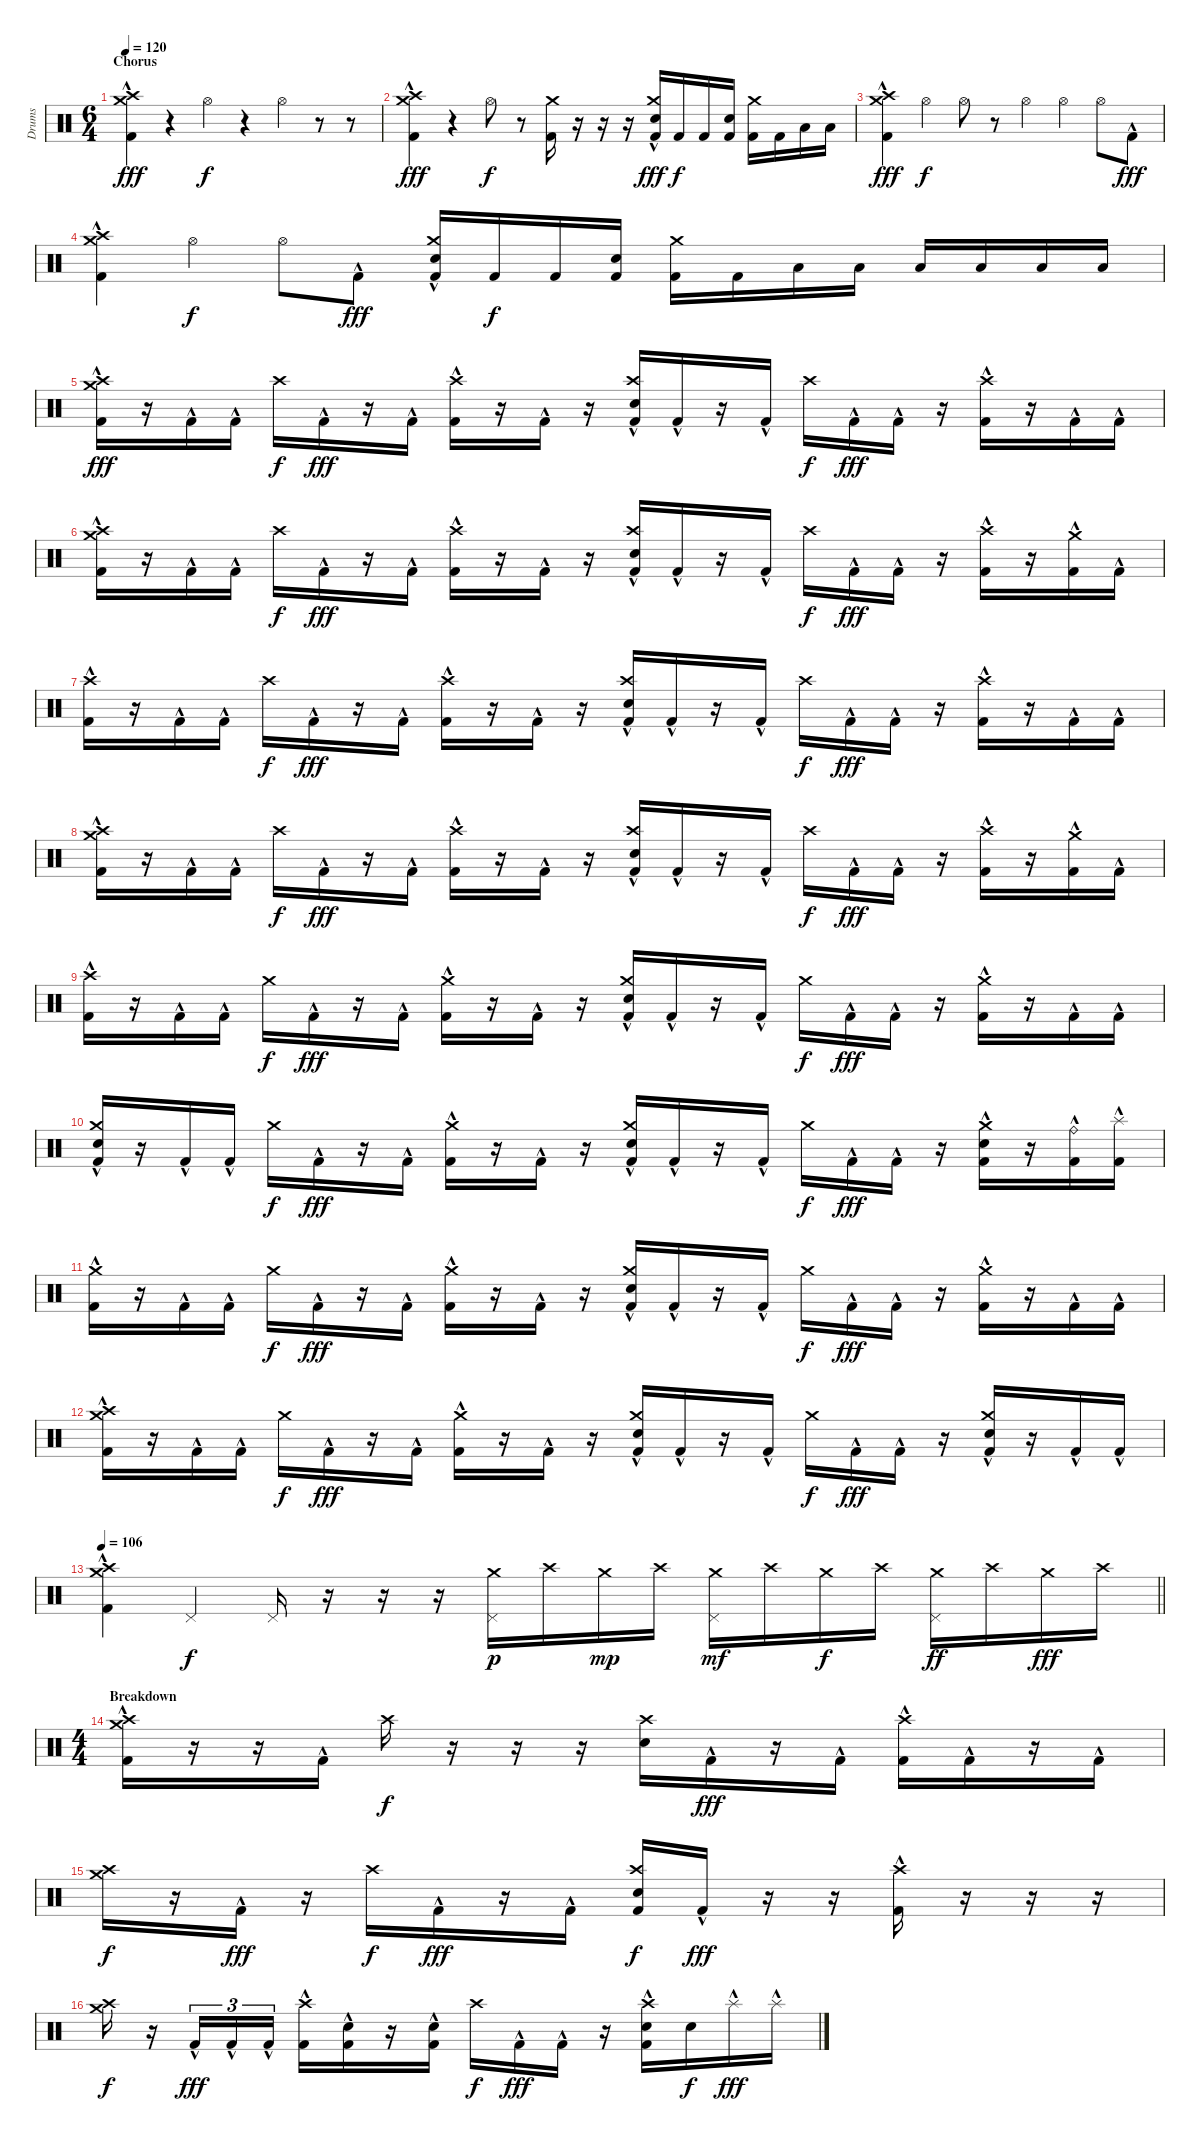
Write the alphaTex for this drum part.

\track ("Drums" "Drums") {instrument percussion}
\staff {score}
\articulation defaults
\ts (6 4)
\section ("" "Chorus")
\tempo 120
\clef neutral
\ks c
("Kick (hit) 2"{hac} "Crash high (hit)" "Crash medium (hit)").4{dy fff} r.4 "Hi-Hat (open)".4{dy f} r.4 "Hi-Hat (open)".4 r.8 r.8 |
("Kick (hit) 2"{hac} "Crash high (hit)" "Crash medium (hit)").4{dy fff} r.4 "Hi-Hat (open)".8{dy f} r.8 ("Kick (hit) 2" "Crash medium (hit)").16 r.16 r.16 r.16 ("Kick (hit) 2"{hac} "Electric Snare (hit)" "Crash medium (hit)").16{dy fff} "Kick (hit) 2".16{dy f} "Kick (hit) 2".16 ("Kick (hit) 2" "Electric Snare (hit)").16 ("Kick (hit) 2" "Crash medium (hit)").16 "Kick (hit) 2".16 "Low Tom (hit)".16 "Low Tom (hit)".16 |
("Kick (hit) 2"{hac} "Crash high (hit)" "Crash medium (hit)").4{dy fff} "Hi-Hat (open)".4{dy f} "Hi-Hat (open)".8 r.8 "Hi-Hat (open)".4 "Hi-Hat (open)".4 "Hi-Hat (open)".8 "Kick (hit) 2"{hac}.8{dy fff} |
("Kick (hit) 2"{hac} "Crash high (hit)" "Crash medium (hit)").4 "Hi-Hat (open)".4{dy f} "Hi-Hat (open)".8 "Kick (hit) 2"{hac}.8{dy fff} ("Kick (hit) 2"{hac} "Electric Snare (hit)" "Crash medium (hit)").16 "Kick (hit) 2".16{dy f} "Kick (hit) 2".16 ("Kick (hit) 2" "Electric Snare (hit)").16 ("Kick (hit) 2" "Crash medium (hit)").16 "Kick (hit) 2".16 "Low Tom (hit)".16 "Low Tom (hit)".16 "Low Floor Tom (hit)".16 "Low Floor Tom (hit)".16 "Low Floor Tom (hit)".16 "Low Floor Tom (hit)".16 |
("Kick (hit) 2"{hac} "Crash medium (hit)" "Crash high (hit)").16{dy fff} r.16 "Kick (hit) 2"{hac}.16 "Kick (hit) 2"{hac}.16 "Crash high (hit)".16{dy f} "Kick (hit) 2"{hac}.16{dy fff} r.16 "Kick (hit) 2"{hac}.16 ("Kick (hit) 2"{hac} "Crash high (hit)").16 r.16 "Kick (hit) 2"{hac}.16 r.16 ("Kick (hit) 2"{hac} "Electric Snare (hit)" "Crash high (hit)").16 "Kick (hit) 2"{hac}.16 r.16 "Kick (hit) 2"{hac}.16 "Crash high (hit)".16{dy f} "Kick (hit) 2"{hac}.16{dy fff} "Kick (hit) 2"{hac}.16 r.16 ("Kick (hit) 2"{hac} "Crash high (hit)").16 r.16 "Kick (hit) 2"{hac}.16 "Kick (hit) 2"{hac}.16 |
("Kick (hit) 2"{hac} "Crash medium (hit)" "Crash high (hit)").16 r.16 "Kick (hit) 2"{hac}.16 "Kick (hit) 2"{hac}.16 "Crash high (hit)".16{dy f} "Kick (hit) 2"{hac}.16{dy fff} r.16 "Kick (hit) 2"{hac}.16 ("Kick (hit) 2"{hac} "Crash high (hit)").16 r.16 "Kick (hit) 2"{hac}.16 r.16 ("Kick (hit) 2"{hac} "Electric Snare (hit)" "Crash high (hit)").16 "Kick (hit) 2"{hac}.16 r.16 "Kick (hit) 2"{hac}.16 "Crash high (hit)".16{dy f} "Kick (hit) 2"{hac}.16{dy fff} "Kick (hit) 2"{hac}.16 r.16 ("Kick (hit) 2"{hac} "Crash high (hit)").16 r.16 ("Kick (hit) 2"{hac} "Crash medium (hit)").16 "Kick (hit) 2"{hac}.16 |
("Kick (hit) 2"{hac} "Crash high (hit)").16 r.16 "Kick (hit) 2"{hac}.16 "Kick (hit) 2"{hac}.16 "Crash high (hit)".16{dy f} "Kick (hit) 2"{hac}.16{dy fff} r.16 "Kick (hit) 2"{hac}.16 ("Kick (hit) 2"{hac} "Crash high (hit)").16 r.16 "Kick (hit) 2"{hac}.16 r.16 ("Kick (hit) 2"{hac} "Electric Snare (hit)" "Crash high (hit)").16 "Kick (hit) 2"{hac}.16 r.16 "Kick (hit) 2"{hac}.16 "Crash high (hit)".16{dy f} "Kick (hit) 2"{hac}.16{dy fff} "Kick (hit) 2"{hac}.16 r.16 ("Kick (hit) 2"{hac} "Crash high (hit)").16 r.16 "Kick (hit) 2"{hac}.16 "Kick (hit) 2"{hac}.16 |
("Kick (hit) 2"{hac} "Crash medium (hit)" "Crash high (hit)").16 r.16 "Kick (hit) 2"{hac}.16 "Kick (hit) 2"{hac}.16 "Crash high (hit)".16{dy f} "Kick (hit) 2"{hac}.16{dy fff} r.16 "Kick (hit) 2"{hac}.16 ("Kick (hit) 2"{hac} "Crash high (hit)").16 r.16 "Kick (hit) 2"{hac}.16 r.16 ("Kick (hit) 2"{hac} "Electric Snare (hit)" "Crash high (hit)").16 "Kick (hit) 2"{hac}.16 r.16 "Kick (hit) 2"{hac}.16 "Crash high (hit)".16{dy f} "Kick (hit) 2"{hac}.16{dy fff} "Kick (hit) 2"{hac}.16 r.16 ("Kick (hit) 2"{hac} "Crash high (hit)").16 r.16 ("Kick (hit) 2"{hac} "Crash medium (hit)").16 "Kick (hit) 2"{hac}.16 |
("Kick (hit) 2"{hac} "Crash high (hit)").16 r.16 "Kick (hit) 2"{hac}.16 "Kick (hit) 2"{hac}.16 "Crash medium (hit)".16{dy f} "Kick (hit) 2"{hac}.16{dy fff} r.16 "Kick (hit) 2"{hac}.16 ("Kick (hit) 2"{hac} "Crash medium (hit)").16 r.16 "Kick (hit) 2"{hac}.16 r.16 ("Kick (hit) 2"{hac} "Electric Snare (hit)" "Crash medium (hit)").16 "Kick (hit) 2"{hac}.16 r.16 "Kick (hit) 2"{hac}.16 "Crash medium (hit)".16{dy f} "Kick (hit) 2"{hac}.16{dy fff} "Kick (hit) 2"{hac}.16 r.16 ("Kick (hit) 2"{hac} "Crash medium (hit)").16 r.16 "Kick (hit) 2"{hac}.16 "Kick (hit) 2"{hac}.16 |
("Kick (hit) 2"{hac} "Snare (hit)" "Crash medium (hit)").16 r.16 "Kick (hit) 2"{hac}.16 "Kick (hit) 2"{hac}.16 "Crash medium (hit)".16{dy f} "Kick (hit) 2"{hac}.16{dy fff} r.16 "Kick (hit) 2"{hac}.16 ("Kick (hit) 2"{hac} "Crash medium (hit)").16 r.16 "Kick (hit) 2"{hac}.16 r.16 ("Kick (hit) 2"{hac} "Electric Snare (hit)" "Crash medium (hit)").16 "Kick (hit) 2"{hac}.16 r.16 "Kick (hit) 2"{hac}.16 "Crash medium (hit)".16{dy f} "Kick (hit) 2"{hac}.16{dy fff} "Kick (hit) 2"{hac}.16 r.16 ("Kick (hit) 2"{hac} "Electric Snare (hit)" "Crash medium (hit)").16 r.16 ("Kick (hit) 2"{hac} "Ride (bell)").16 ("Kick (hit) 2"{hac} "Splash (hit)"{hac}).16 |
("Kick (hit) 2"{hac} "Crash medium (hit)").16 r.16 "Kick (hit) 2"{hac}.16 "Kick (hit) 2"{hac}.16 "Crash medium (hit)".16{dy f} "Kick (hit) 2"{hac}.16{dy fff} r.16 "Kick (hit) 2"{hac}.16 ("Kick (hit) 2"{hac} "Crash medium (hit)").16 r.16 "Kick (hit) 2"{hac}.16 r.16 ("Kick (hit) 2"{hac} "Electric Snare (hit)" "Crash medium (hit)").16 "Kick (hit) 2"{hac}.16 r.16 "Kick (hit) 2"{hac}.16 "Crash medium (hit)".16{dy f} "Kick (hit) 2"{hac}.16{dy fff} "Kick (hit) 2"{hac}.16 r.16 ("Kick (hit) 2"{hac} "Crash medium (hit)").16 r.16 "Kick (hit) 2"{hac}.16 "Kick (hit) 2"{hac}.16 |
("Kick (hit) 2"{hac} "Crash high (hit)" "Crash medium (hit)").16 r.16 "Kick (hit) 2"{hac}.16 "Kick (hit) 2"{hac}.16 "Crash medium (hit)".16{dy f} "Kick (hit) 2"{hac}.16{dy fff} r.16 "Kick (hit) 2"{hac}.16 ("Kick (hit) 2"{hac} "Crash medium (hit)").16 r.16 "Kick (hit) 2"{hac}.16 r.16 ("Kick (hit) 2"{hac} "Electric Snare (hit)" "Crash medium (hit)").16 "Kick (hit) 2"{hac}.16 r.16 "Kick (hit) 2"{hac}.16 "Crash medium (hit)".16{dy f} "Kick (hit) 2"{hac}.16{dy fff} "Kick (hit) 2"{hac}.16 r.16 ("Kick (hit) 2"{hac} "Electric Snare (hit)" "Crash medium (hit)").16 r.16 "Kick (hit) 2"{hac}.16 "Kick (hit) 2"{hac}.16 |
\tempo 106
\barLineRight lightlight
("Kick (hit) 2"{hac} "Crash high (hit)" "Crash medium (hit)").4 "Pedal Hi-Hat (hit)".4{dy f} "Pedal Hi-Hat (hit)".16 r.16 r.16 r.16 ("Crash medium (hit)" "Pedal Hi-Hat (hit)").16{dy p} "Crash high (hit)".16 "Crash medium (hit)".16{dy mp} "Crash high (hit)".16 ("Crash medium (hit)" "Pedal Hi-Hat (hit)").16{dy mf} "Crash high (hit)".16 "Crash medium (hit)".16{dy f} "Crash high (hit)".16 ("Crash medium (hit)" "Pedal Hi-Hat (hit)").16{dy ff} "Crash high (hit)".16 "Crash medium (hit)".16{dy fff} "Crash high (hit)".16 |
\ts (4 4)
\section ("" "Breakdown")
("Kick (hit) 2"{hac} "Crash medium (hit)" "Crash high (hit)").16 r.16 r.16 "Kick (hit) 2"{hac}.16 "Crash high (hit)".16{dy f} r.16 r.16 r.16 ("Electric Snare (hit)" "Crash high (hit)").16 "Kick (hit) 2"{hac}.16{dy fff} r.16 "Kick (hit) 2"{hac}.16 ("Kick (hit) 2"{hac} "Crash high (hit)").16 "Kick (hit) 2"{hac}.16 r.16 "Kick (hit) 2"{hac}.16 |
("Crash medium (hit)" "Crash high (hit)").16{dy f} r.16 "Kick (hit) 2"{hac}.16{dy fff} r.16 "Crash high (hit)".16{dy f} "Kick (hit) 2"{hac}.16{dy fff} r.16 "Kick (hit) 2"{hac}.16 ("Kick (hit) 2" "Electric Snare (hit)" "Crash high (hit)").16{dy f} "Kick (hit) 2"{hac}.16{dy fff} r.16 r.16 ("Kick (hit) 2"{hac} "Crash high (hit)").16 r.16 r.16 r.16 |
("Crash medium (hit)" "Crash high (hit)").16{dy f} r.16 "Kick (hit) 2"{hac}.16{tu (3 2) dy fff} "Kick (hit) 2"{hac}.16{tu (3 2)} "Kick (hit) 2"{hac}.16{tu (3 2)} ("Kick (hit) 2"{hac} "Crash high (hit)").16 ("Kick (hit) 2"{hac} "Electric Snare (hit)").16 r.16 ("Kick (hit) 2"{hac} "Electric Snare (hit)").16 "Crash high (hit)".16{dy f} "Kick (hit) 2"{hac}.16{dy fff} "Kick (hit) 2"{hac}.16 r.16 ("Kick (hit) 2"{hac} "Electric Snare (hit)" "Crash high (hit)").16 "Electric Snare (hit)".16{dy f} "Splash (hit)"{hac}.16{dy fff} "Splash (hit)"{hac}.16
